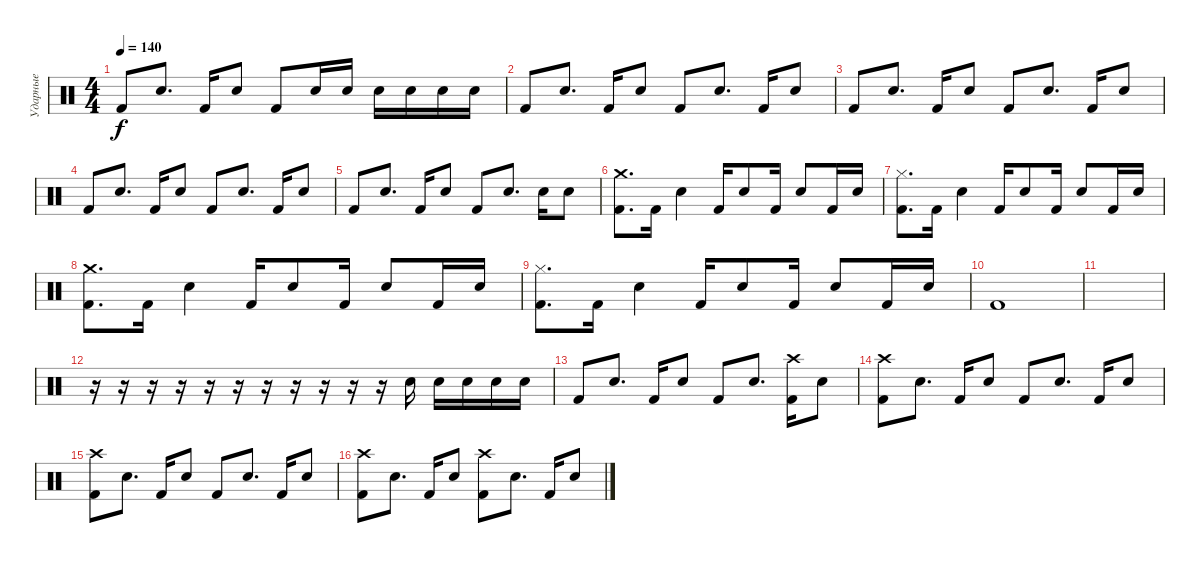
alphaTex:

\track ("Ударные" "Ударные") {instrument percussion}
\staff {score}
\articulation defaults
\ts (4 4)
\tempo 140
\clef neutral
\ks c "Kick (hit) 2".8{dy f} "Electric Snare (hit)".8{d} "Kick (hit) 2".16 "Electric Snare (hit)".8 "Kick (hit) 2".8 "Electric Snare (hit)".16 "Electric Snare (hit)".16 "Electric Snare (hit)".16 "Electric Snare (hit)".16 "Electric Snare (hit)".16 "Electric Snare (hit)".16
|
"Kick (hit) 2".8 "Electric Snare (hit)".8{d} "Kick (hit) 2".16 "Electric Snare (hit)".8 "Kick (hit) 2".8 "Electric Snare (hit)".8{d} "Kick (hit) 2".16 "Electric Snare (hit)".8 |
"Kick (hit) 2".8 "Electric Snare (hit)".8{d} "Kick (hit) 2".16 "Electric Snare (hit)".8 "Kick (hit) 2".8 "Electric Snare (hit)".8{d} "Kick (hit) 2".16 "Electric Snare (hit)".8 |
"Kick (hit) 2".8 "Electric Snare (hit)".8{d} "Kick (hit) 2".16 "Electric Snare (hit)".8 "Kick (hit) 2".8 "Electric Snare (hit)".8{d} "Kick (hit) 2".16 "Electric Snare (hit)".8 |
"Kick (hit) 2".8 "Electric Snare (hit)".8{d} "Kick (hit) 2".16 "Electric Snare (hit)".8 "Kick (hit) 2".8 "Electric Snare (hit)".8{d} "Electric Snare (hit)".16 "Electric Snare (hit)".8 |
("Crash medium (hit)" "Kick (hit) 2").8{d} "Kick (hit) 2".16 "Electric Snare (hit)".4 "Kick (hit) 2".16 "Electric Snare (hit)".8 "Kick (hit) 2".16 "Electric Snare (hit)".8 "Kick (hit) 2".16 "Electric Snare (hit)".16 |
("Hi-Hat (closed)" "Kick (hit) 2").8{d} "Kick (hit) 2".16 "Electric Snare (hit)".4 "Kick (hit) 2".16 "Electric Snare (hit)".8 "Kick (hit) 2".16 "Electric Snare (hit)".8 "Kick (hit) 2".16 "Electric Snare (hit)".16 |
("Crash medium (hit)" "Kick (hit) 2").8{d} "Kick (hit) 2".16 "Electric Snare (hit)".4 "Kick (hit) 2".16 "Electric Snare (hit)".8 "Kick (hit) 2".16 "Electric Snare (hit)".8 "Kick (hit) 2".16 "Electric Snare (hit)".16 |
("Hi-Hat (closed)" "Kick (hit) 2").8{d} "Kick (hit) 2".16 "Electric Snare (hit)".4 "Kick (hit) 2".16 "Electric Snare (hit)".8 "Kick (hit) 2".16 "Electric Snare (hit)".8 "Kick (hit) 2".16 "Electric Snare (hit)".16 |
"Kick (hit) 2".1 |
|
r.16 r.16 r.16 r.16 r.16 r.16 r.16 r.16 r.16 r.16 r.16 "Electric Snare (hit)".16 "Electric Snare (hit)".16 "Electric Snare (hit)".16 "Electric Snare (hit)".16 "Electric Snare (hit)".16 |
"Kick (hit) 2".8 "Electric Snare (hit)".8{d} "Kick (hit) 2".16 "Electric Snare (hit)".8 "Kick (hit) 2".8 "Electric Snare (hit)".8{d} ("Kick (hit) 2" "Crash high (hit)").16 "Electric Snare (hit)".8 |
("Kick (hit) 2" "Crash high (hit)").8 "Electric Snare (hit)".8{d} "Kick (hit) 2".16 "Electric Snare (hit)".8 "Kick (hit) 2".8 "Electric Snare (hit)".8{d} "Kick (hit) 2".16 "Electric Snare (hit)".8 |
("Kick (hit) 2" "Crash high (hit)").8 "Electric Snare (hit)".8{d} "Kick (hit) 2".16 "Electric Snare (hit)".8 "Kick (hit) 2".8 "Electric Snare (hit)".8{d} "Kick (hit) 2".16 "Electric Snare (hit)".8 |
("Kick (hit) 2" "Crash high (hit)").8 "Electric Snare (hit)".8{d} "Kick (hit) 2".16 "Electric Snare (hit)".8 ("Kick (hit) 2" "Crash high (hit)").8 "Electric Snare (hit)".8{d} "Kick (hit) 2".16 "Electric Snare (hit)".8
